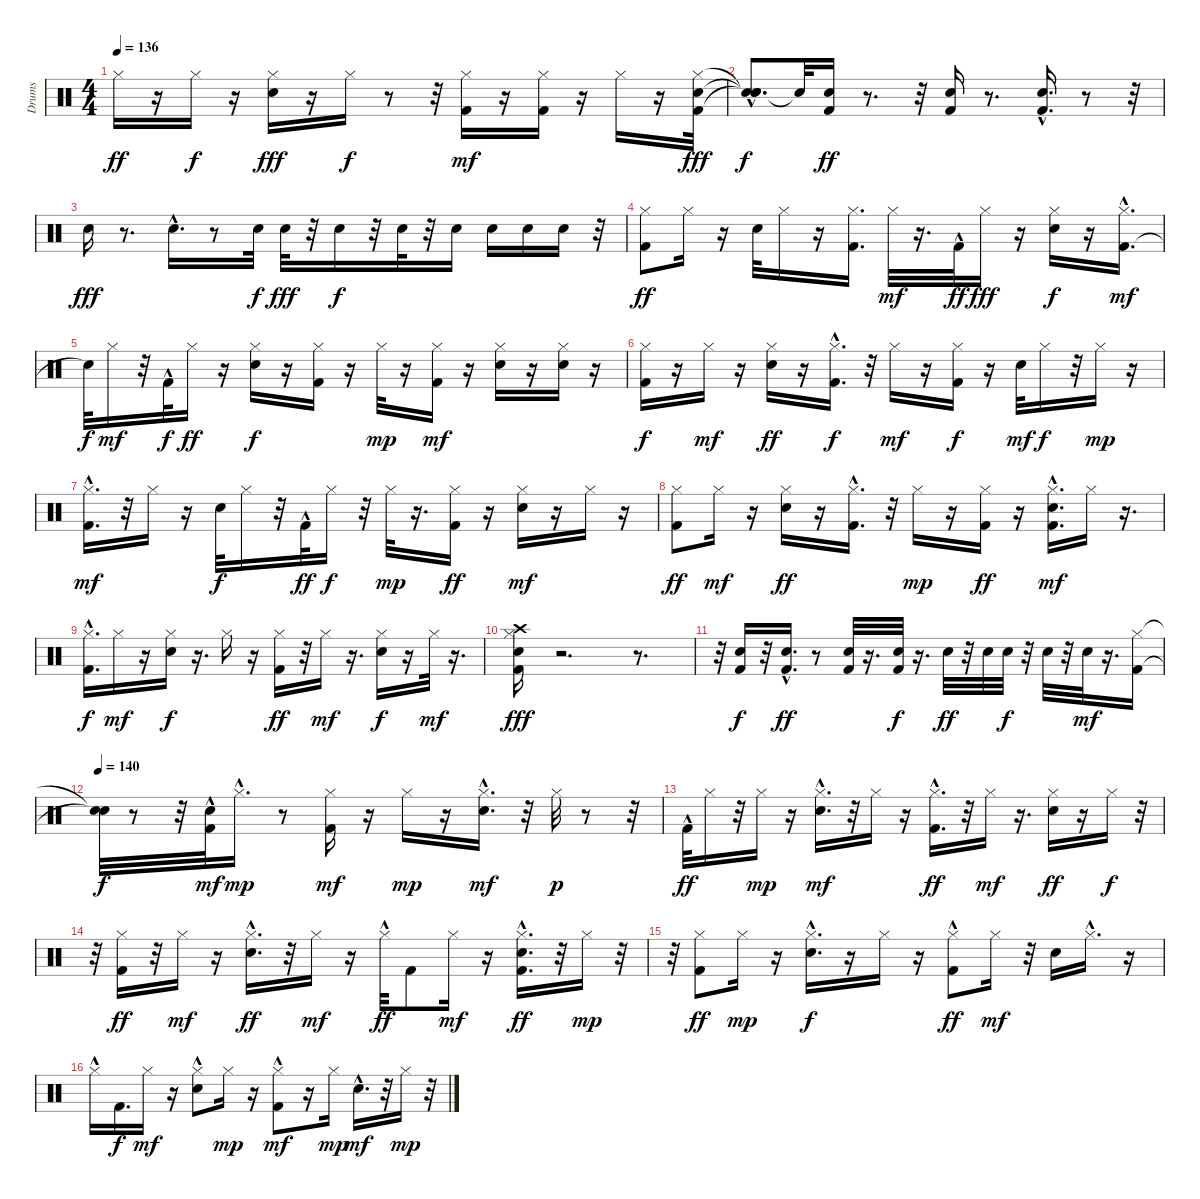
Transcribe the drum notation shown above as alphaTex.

\track ("Drums" "Drums") {instrument percussion}
\staff {score}
\articulation defaults
\ts (4 4)
\tempo 136
\clef neutral
\ks c "Hi-Hat (closed)".16{dy ff}
r.16 "Hi-Hat (closed)".16{dy f} r.16 ("Snare (hit) 2" "Hi-Hat (closed)").16{dy fff} r.16 "Hi-Hat (closed)".16{dy f} r.8 r.32 ("Hi-Hat (closed)" "Kick (hit) 2").16{dy mf} r.16 ("Hi-Hat (closed)" "Kick (hit) 2").16 r.16 "Hi-Hat (closed)".16 r.16 ("Kick (hit) 2" "Snare (hit) 2" "Hi-Hat (closed)").32{dy fff} |
("Snare (hit)"{t} "Snare (hit)"{t} "Snare (hit)"{hac t}).8{d dy f} "Snare (hit)"{t}.32 ("Kick (hit) 2" "Snare (hit) 2").16{dy ff} r.8{d} r.32 ("Kick (hit) 2" "Snare (hit) 2").16 r.8{d} ("Kick (hit) 2"{hac} "Snare (hit) 2"{hac}).16{d} r.8 r.32 |
"Snare (hit) 2".16{dy fff} r.8{d} "Snare (hit) 2"{hac}.16{d} r.8 "Snare (hit) 2".32{dy f} "Snare (hit) 2".32{dy fff} r.32 "Snare (hit) 2".16{dy f} r.32 "Snare (hit) 2".32 r.32 "Snare (hit) 2".16 "Snare (hit) 2".16 "Snare (hit) 2".16 "Snare (hit) 2".16 r.32 |
("Hi-Hat (closed)" "Kick (hit) 2").8{dy ff} "Hi-Hat (closed)".16 r.16 "Snare (hit) 2".32 "Hi-Hat (closed)".16 r.16 ("Kick (hit) 2" "Hi-Hat (closed)").16{d} "Hi-Hat (closed)".32{dy mf} r.16{d} "Kick (hit) 2"{hac}.32{dy ff} "Hi-Hat (closed)".16{dy fff} r.16 ("Snare (hit) 2" "Hi-Hat (closed)").16{dy f} r.16 ("Kick (hit) 2"{hac} "Hi-Hat (closed)").16{d dy mf} |
"Snare (hit)"{t}.32{dy f} "Hi-Hat (closed)".16{dy mf} r.32 "Kick (hit) 2"{hac}.32{dy f} "Hi-Hat (closed)".16{dy ff} r.16 ("Hi-Hat (closed)" "Snare (hit) 2").16{dy f} r.16 ("Hi-Hat (closed)" "Kick (hit) 2").16 r.16 "Hi-Hat (closed)".32{dy mp} r.16 ("Hi-Hat (closed)" "Kick (hit) 2").16{dy mf} r.16 ("Snare (hit) 2" "Hi-Hat (closed)").16 r.16 ("Snare (hit) 2" "Hi-Hat (closed)").16 r.16 |
("Hi-Hat (closed)" "Kick (hit) 2").16{dy f} r.16 "Hi-Hat (closed)".16{dy mf} r.16 ("Snare (hit) 2" "Hi-Hat (closed)").16{dy ff} r.16 ("Hi-Hat (closed)" "Kick (hit) 2"{hac}).16{d dy f} r.32 "Hi-Hat (closed)".16{dy mf} r.16 ("Kick (hit) 2" "Hi-Hat (closed)").16{dy f} r.16 "Snare (hit) 2".32{dy mf} "Hi-Hat (closed)".16{dy f} r.32 "Hi-Hat (closed)".16{dy mp} r.16 |
("Hi-Hat (closed)" "Kick (hit) 2"{hac}).16{d dy mf} r.32 "Hi-Hat (closed)".16 r.16 "Snare (hit) 2".32{dy f} "Hi-Hat (closed)".16 r.32 "Kick (hit) 2"{hac}.32{dy ff} "Hi-Hat (closed)".16{dy f} r.32 "Hi-Hat (closed)".32{dy mp} r.16{d} ("Hi-Hat (closed)" "Kick (hit) 2").16{dy ff} r.16 ("Hi-Hat (closed)" "Snare (hit) 2").16{dy mf} r.16 "Hi-Hat (closed)".16 r.16 |
("Kick (hit) 2" "Hi-Hat (closed)").8{dy ff} "Hi-Hat (closed)".16{dy mf} r.16 ("Snare (hit) 2" "Hi-Hat (closed)").16{dy ff} r.16 ("Hi-Hat (closed)" "Kick (hit) 2"{hac}).16{d} r.32 "Hi-Hat (closed)".16{dy mp} r.16 ("Hi-Hat (closed)" "Kick (hit) 2").16{dy ff} r.16 ("Hi-Hat (closed)" "Snare (hit) 2"{hac} "Kick (hit) 2").16{d dy mf} "Hi-Hat (closed)".16 r.16{d} |
("Hi-Hat (closed)" "Kick (hit) 2"{hac}).16{d dy f} "Hi-Hat (closed)".16{dy mf} r.16 ("Snare (hit) 2" "Hi-Hat (closed)").16{dy f} r.16{d} "Hi-Hat (closed)".16 r.16 ("Hi-Hat (closed)" "Kick (hit) 2").16{dy ff} r.32 "Hi-Hat (closed)".16{dy mf} r.16{d} ("Snare (hit) 2" "Hi-Hat (closed)").16{dy f} r.16 "Hi-Hat (closed)".32{dy mf} r.16{d} |
("Crash high (hit)" "Hi-Hat (closed)" "Snare (hit) 2" "Kick (hit) 2").16{dy fff} r.2{d} r.8{d} |
r.32 ("Snare (hit) 2" "Kick (hit) 2").16{dy f} r.32 ("Kick (hit) 2"{hac} "Snare (hit) 2").16{d dy ff} r.8 ("Kick (hit) 2" "Snare (hit) 2").32 r.16{d} ("Snare (hit) 2" "Kick (hit) 2").32{dy f} r.16{d} "Snare (hit) 2".32{dy ff} r.32 "Snare (hit) 2".32 "Snare (hit) 2".32{dy f} r.32 "Snare (hit) 2".32 r.32 "Snare (hit) 2".32{dy mf} r.16{d} ("Hi-Hat (closed)" "Kick (hit) 2").16 |
\tempo 140
("Snare (hit)"{t} "Snare (hit)"{t}).32{dy f} r.8 r.32 ("Kick (hit) 2"{hac} "Snare (hit) 2"{hac}).32{dy mf} "Hi-Hat (closed)"{hac}.16{d dy mp} r.8 ("Kick (hit) 2" "Hi-Hat (closed)").16{dy mf} r.16 "Hi-Hat (closed)".16{dy mp} r.16 ("Snare (hit) 2"{hac} "Hi-Hat (closed)").16{d dy mf} r.32 "Hi-Hat (closed)".32{dy p} r.8 r.32 |
"Kick (hit) 2"{hac}.32{dy ff} "Hi-Hat (closed)".16 r.32 "Hi-Hat (closed)".16{dy mp} r.16 ("Hi-Hat (closed)" "Snare (hit) 2"{hac}).16{d dy mf} r.32 "Hi-Hat (closed)".16 r.16 ("Hi-Hat (closed)" "Kick (hit) 2"{hac}).16{d dy ff} r.32 "Hi-Hat (closed)".16{dy mf} r.16{d} ("Hi-Hat (closed)" "Snare (hit) 2").16{dy ff} r.16 "Hi-Hat (closed)".16{dy f} r.32 |
r.32 ("Kick (hit) 2" "Hi-Hat (closed)").16{dy ff} r.32 "Hi-Hat (closed)".16{dy mf} r.16 ("Hi-Hat (closed)" "Snare (hit) 2"{hac}).16{d dy ff} r.32 "Hi-Hat (closed)".16{dy mf} r.16 "Hi-Hat (closed)"{hac}.32{dy ff} "Kick (hit) 2".8 "Hi-Hat (closed)".16{dy mf} r.16 ("Snare (hit) 2"{hac} "Kick (hit) 2" "Hi-Hat (closed)").16{d dy ff} r.32 "Hi-Hat (closed)".16{dy mp} r.32 |
r.32 ("Kick (hit) 2" "Hi-Hat (closed)").8{dy ff} "Hi-Hat (closed)".16{dy mp} r.16 ("Snare (hit) 2"{hac} "Hi-Hat (closed)"{hac}).16{d dy f} r.16 "Hi-Hat (closed)".16 r.16 ("Kick (hit) 2" "Hi-Hat (closed)"{hac}).8{dy ff} "Hi-Hat (closed)".16{dy mf} r.32 "Snare (hit) 2".16 "Hi-Hat (closed)"{hac}.16{d} r.16 |
"Hi-Hat (closed)"{hac}.16 "Kick (hit) 2".16{d dy f} "Hi-Hat (closed)".16{dy mf} r.16 ("Hi-Hat (closed)"{hac} "Snare (hit) 2").8 "Hi-Hat (closed)".16{dy mp} r.16 ("Kick (hit) 2" "Hi-Hat (closed)"{hac}).8{dy mf} r.16 "Hi-Hat (closed)".16{dy mp} "Snare (hit) 2"{hac}.16{d dy mf} r.32 "Hi-Hat (closed)".16{dy mp} r.32
